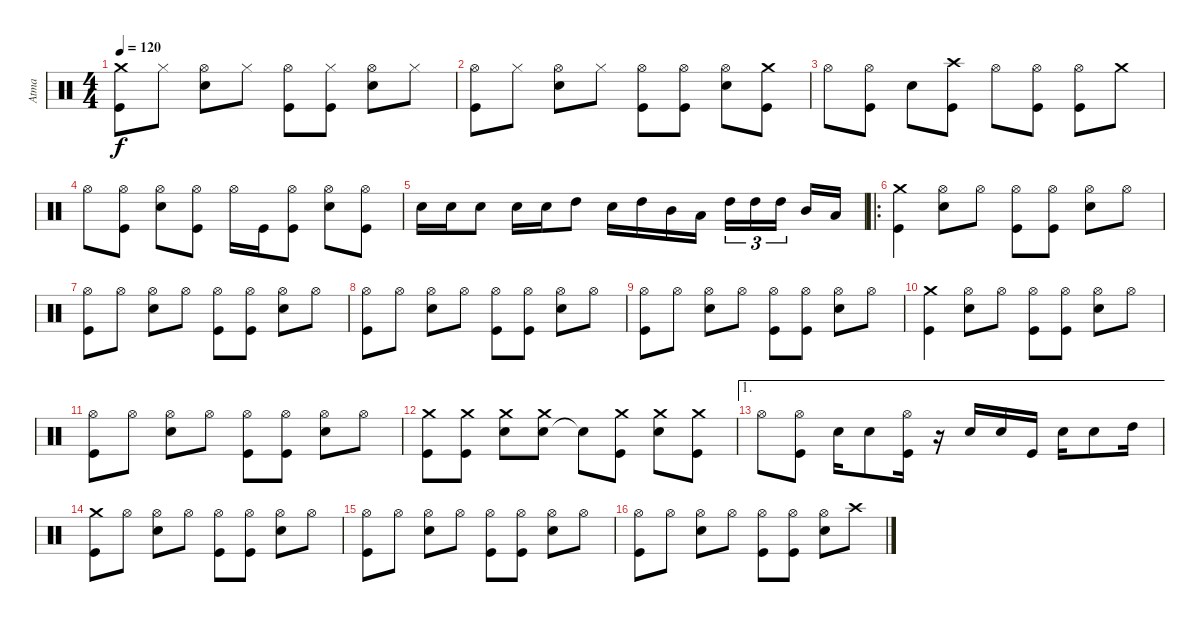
\track ("Atma" "Atma") {instrument percussion}
\staff {score}
\articulation defaults
\ts (4 4)
\tempo 120
\clef neutral
\ks c
("Kick (hit)" "Crash medium (hit)").8{dy f} "Hi-Hat (closed)".8 ("Snare (hit) 2" "Hi-Hat (open)").8 "Hi-Hat (closed)".8 ("Kick (hit)" "Hi-Hat (open)").8 ("Kick (hit)" "Hi-Hat (closed)").8 ("Snare (hit) 2" "Hi-Hat (open)").8 "Hi-Hat (closed)".8 |
("Kick (hit)" "Hi-Hat (open)").8 "Hi-Hat (closed)".8 ("Snare (hit) 2" "Hi-Hat (open)").8 "Hi-Hat (closed)".8 ("Kick (hit)" "Hi-Hat (open)").8 ("Kick (hit)" "Hi-Hat (open)").8 ("Snare (hit) 2" "Hi-Hat (open)").8 ("Kick (hit)" "Crash medium (hit)").8 |
"Hi-Hat (open)".8 ("Kick (hit)" "Hi-Hat (open)").8 "Snare (hit) 2".8 ("Kick (hit)" "Crash high (hit)").8 "Hi-Hat (open)".8 ("Kick (hit)" "Hi-Hat (open)").8 ("Kick (hit)" "Hi-Hat (open)").8 "Crash medium (hit)".8 |
"Hi-Hat (open)".8 ("Kick (hit)" "Hi-Hat (open)").8 ("Snare (hit) 2" "Hi-Hat (open)").8 ("Kick (hit)" "Hi-Hat (open)").8 "Hi-Hat (open)".16 "Kick (hit)".16 ("Kick (hit)" "Hi-Hat (open)").8 ("Snare (hit) 2" "Hi-Hat (open)").8 ("Kick (hit)" "Hi-Hat (open)").8 |
"Snare (hit) 2".16 "Snare (hit) 2".16 "Snare (hit) 2".8 "Snare (hit) 2".16 "Snare (hit) 2".16 "High Tom (hit)".8 "Snare (hit) 2".16 "High Tom (hit)".16 "Mid Tom (hit)".16 "Low Tom (hit)".16 "High Tom (hit)".16{tu (3 2)} "High Tom (hit)".16{tu (3 2)} "High Tom (hit)".16{tu (3 2)} "Mid Tom (hit)".16 "Low Tom (hit)".16 |
\ro
("Kick (hit)" "Crash medium (hit)").4 ("Snare (hit) 2" "Hi-Hat (open)").8 "Hi-Hat (open)".8 ("Kick (hit)" "Hi-Hat (open)").8 ("Kick (hit)" "Hi-Hat (open)").8 ("Snare (hit) 2" "Hi-Hat (open)").8 "Hi-Hat (open)".8 |
("Kick (hit)" "Hi-Hat (open)").8 "Hi-Hat (open)".8 ("Snare (hit) 2" "Hi-Hat (open)").8 "Hi-Hat (open)".8 ("Kick (hit)" "Hi-Hat (open)").8 ("Kick (hit)" "Hi-Hat (open)").8 ("Snare (hit) 2" "Hi-Hat (open)").8 "Hi-Hat (open)".8 |
("Kick (hit)" "Hi-Hat (open)").8 "Hi-Hat (open)".8 ("Snare (hit) 2" "Hi-Hat (open)").8 "Hi-Hat (open)".8 ("Kick (hit)" "Hi-Hat (open)").8 ("Kick (hit)" "Hi-Hat (open)").8 ("Snare (hit) 2" "Hi-Hat (open)").8 "Hi-Hat (open)".8 |
("Kick (hit)" "Hi-Hat (open)").8 "Hi-Hat (open)".8 ("Snare (hit) 2" "Hi-Hat (open)").8 "Hi-Hat (open)".8 ("Kick (hit)" "Hi-Hat (open)").8 ("Kick (hit)" "Hi-Hat (open)").8 ("Snare (hit) 2" "Hi-Hat (open)").8 "Hi-Hat (open)".8 |
("Kick (hit)" "Crash medium (hit)").4 ("Snare (hit) 2" "Hi-Hat (open)").8 "Hi-Hat (open)".8 ("Kick (hit)" "Hi-Hat (open)").8 ("Kick (hit)" "Hi-Hat (open)").8 ("Snare (hit) 2" "Hi-Hat (open)").8 "Hi-Hat (open)".8 |
("Kick (hit)" "Hi-Hat (open)").8 "Hi-Hat (open)".8 ("Snare (hit) 2" "Hi-Hat (open)").8 "Hi-Hat (open)".8 ("Kick (hit)" "Hi-Hat (open)").8 ("Kick (hit)" "Hi-Hat (open)").8 ("Snare (hit) 2" "Hi-Hat (open)").8 "Hi-Hat (open)".8 |
("Kick (hit)" "Crash medium (hit)").8 ("Kick (hit)" "Crash medium (hit)").8 ("Snare (hit) 2" "Crash medium (hit)").8 ("Snare (hit) 2" "Crash medium (hit)").8 "Snare (hit)"{t}.8 ("Kick (hit)" "Crash medium (hit)").8 ("Snare (hit) 2" "Crash medium (hit)").8 ("Kick (hit)" "Crash medium (hit)").8 |
\ae 1 "Hi-Hat (open)".8
("Kick (hit)" "Hi-Hat (open)").8 "Snare (hit) 2".16 "Snare (hit) 2".8 ("Kick (hit)" "Hi-Hat (open)").16 r.16 "Snare (hit) 2".16 "Snare (hit) 2".16 "Kick (hit)".16 "Snare (hit) 2".16 "Snare (hit) 2".8 "High Tom (hit)".16 |
("Kick (hit)" "Crash medium (hit)").8 "Hi-Hat (open)".8 ("Snare (hit) 2" "Hi-Hat (open)").8 "Hi-Hat (open)".8 ("Kick (hit)" "Hi-Hat (open)").8 ("Kick (hit)" "Hi-Hat (open)").8 ("Snare (hit) 2" "Hi-Hat (open)").8 "Hi-Hat (open)".8 |
("Kick (hit)" "Hi-Hat (open)").8 "Hi-Hat (open)".8 ("Snare (hit) 2" "Hi-Hat (open)").8 "Hi-Hat (open)".8 ("Kick (hit)" "Hi-Hat (open)").8 ("Kick (hit)" "Hi-Hat (open)").8 ("Snare (hit) 2" "Hi-Hat (open)").8 "Hi-Hat (open)".8 |
("Kick (hit)" "Hi-Hat (open)").8 "Hi-Hat (open)".8 ("Snare (hit) 2" "Hi-Hat (open)").8 "Hi-Hat (open)".8 ("Kick (hit)" "Hi-Hat (open)").8 ("Kick (hit)" "Hi-Hat (open)").8 ("Snare (hit) 2" "Hi-Hat (open)").8 "Crash high (hit)".8
